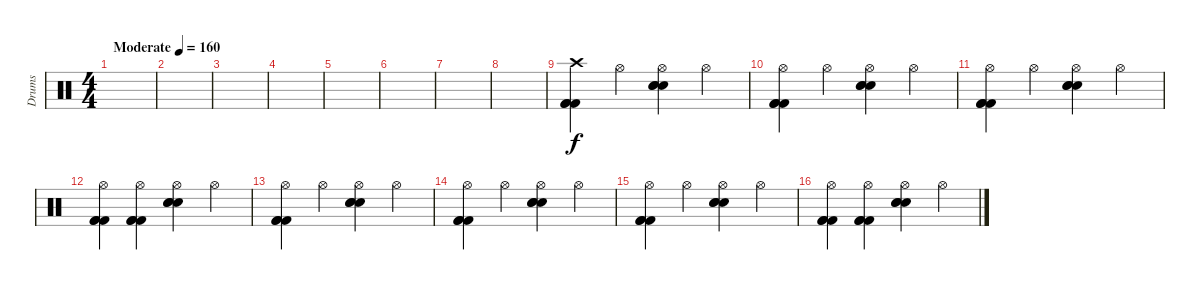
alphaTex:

\track ("Drums" "Drums") {instrument percussion}
\staff {score}
\articulation defaults
\ts (4 4)
\tempo (160 "Moderate")
\clef neutral
\ks c
|
|
|
|
|
|
|
|
("Crash high (hit)" "Kick (hit) 2" "Kick (hit) 2" "Kick (hit) 2").4 "Hi-Hat (open)".4 ("Hi-Hat (open)" "Electric Snare (hit)" "Electric Snare (hit)" "Electric Snare (hit)").4 "Hi-Hat (open)".4 |
("Hi-Hat (open)" "Kick (hit) 2" "Kick (hit) 2" "Kick (hit) 2").4 "Hi-Hat (open)".4 ("Hi-Hat (open)" "Electric Snare (hit)" "Electric Snare (hit)" "Electric Snare (hit)").4 "Hi-Hat (open)".4 |
("Hi-Hat (open)" "Kick (hit) 2" "Kick (hit) 2" "Kick (hit) 2").4 "Hi-Hat (open)".4 ("Hi-Hat (open)" "Electric Snare (hit)" "Electric Snare (hit)" "Electric Snare (hit)").4 "Hi-Hat (open)".4 |
("Hi-Hat (open)" "Kick (hit) 2" "Kick (hit) 2" "Kick (hit) 2").4 ("Hi-Hat (open)" "Kick (hit) 2" "Kick (hit) 2" "Kick (hit) 2").4 ("Hi-Hat (open)" "Electric Snare (hit)" "Electric Snare (hit)" "Electric Snare (hit)").4 "Hi-Hat (open)".4 |
("Hi-Hat (open)" "Kick (hit) 2" "Kick (hit) 2" "Kick (hit) 2").4 "Hi-Hat (open)".4 ("Hi-Hat (open)" "Electric Snare (hit)" "Electric Snare (hit)" "Electric Snare (hit)").4 "Hi-Hat (open)".4 |
("Hi-Hat (open)" "Kick (hit) 2" "Kick (hit) 2" "Kick (hit) 2").4 "Hi-Hat (open)".4 ("Hi-Hat (open)" "Electric Snare (hit)" "Electric Snare (hit)" "Electric Snare (hit)").4 "Hi-Hat (open)".4 |
("Hi-Hat (open)" "Kick (hit) 2" "Kick (hit) 2" "Kick (hit) 2").4 "Hi-Hat (open)".4 ("Hi-Hat (open)" "Electric Snare (hit)" "Electric Snare (hit)" "Electric Snare (hit)").4 "Hi-Hat (open)".4 |
("Hi-Hat (open)" "Kick (hit) 2" "Kick (hit) 2" "Kick (hit) 2").4 ("Hi-Hat (open)" "Kick (hit) 2" "Kick (hit) 2" "Kick (hit) 2").4 ("Hi-Hat (open)" "Electric Snare (hit)" "Electric Snare (hit)" "Electric Snare (hit)").4 "Hi-Hat (open)".4
